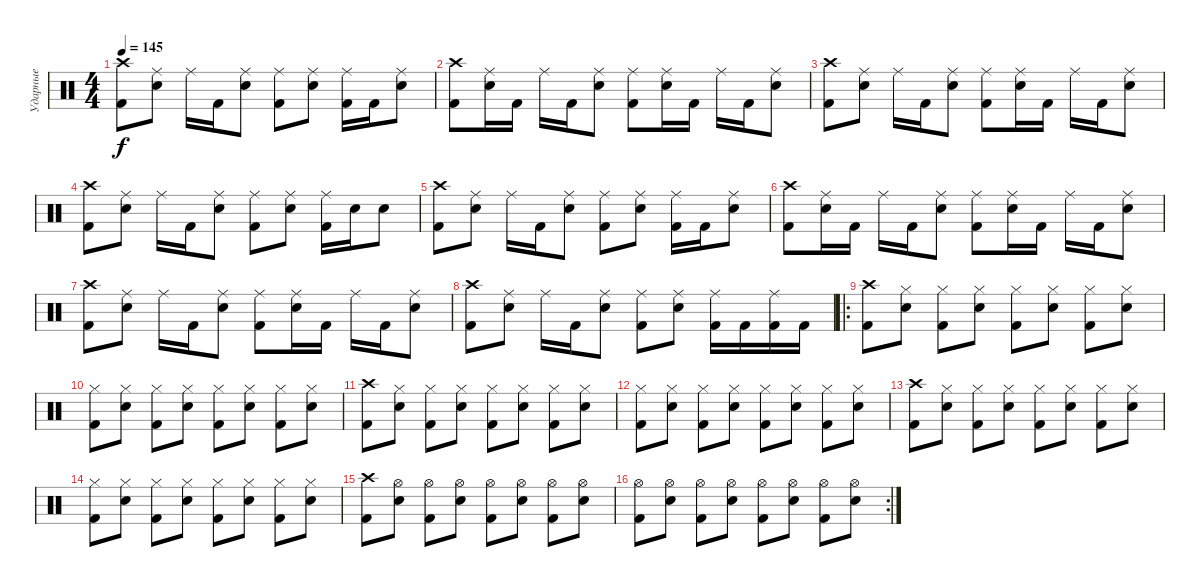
\track ("Ударные" "Ударные") {instrument percussion}
\staff {score}
\articulation defaults
\ts (4 4)
\tempo 145
\clef neutral
\ks c
("Kick (hit) 2" "Crash high (hit)").8{dy f} ("Electric Snare (hit)" "Ride (middle)").8 "Ride (middle)".16 "Kick (hit) 2".16 ("Electric Snare (hit)" "Ride (middle)").8 ("Kick (hit) 2" "Ride (middle)").8 ("Electric Snare (hit)" "Ride (middle)").8 ("Kick (hit) 2" "Ride (middle)").16 "Kick (hit) 2".16 ("Electric Snare (hit)" "Ride (middle)").8 |
("Kick (hit) 2" "Crash high (hit)").8 ("Electric Snare (hit)" "Ride (middle)").16 "Kick (hit) 2".16 "Ride (middle)".16 "Kick (hit) 2".16 ("Electric Snare (hit)" "Ride (middle)").8 ("Kick (hit) 2" "Ride (middle)").8 ("Electric Snare (hit)" "Ride (middle)").16 "Kick (hit) 2".16 "Ride (middle)".16 "Kick (hit) 2".16 ("Electric Snare (hit)" "Ride (middle)").8 |
("Kick (hit) 2" "Crash high (hit)").8 ("Electric Snare (hit)" "Ride (middle)").8 "Ride (middle)".16 "Kick (hit) 2".16 ("Electric Snare (hit)" "Ride (middle)").8 ("Kick (hit) 2" "Ride (middle)").8 ("Electric Snare (hit)" "Ride (middle)").16 "Kick (hit) 2".16 "Ride (middle)".16 "Kick (hit) 2".16 ("Electric Snare (hit)" "Ride (middle)").8 |
("Kick (hit) 2" "Crash high (hit)").8 ("Electric Snare (hit)" "Ride (middle)").8 "Ride (middle)".16 "Kick (hit) 2".16 ("Electric Snare (hit)" "Ride (middle)").8 ("Kick (hit) 2" "Ride (middle)").8 ("Electric Snare (hit)" "Ride (middle)").8 ("Kick (hit) 2" "Ride (middle)").16 "Electric Snare (hit)".16 "Electric Snare (hit)".8 |
("Kick (hit) 2" "Crash high (hit)").8 ("Electric Snare (hit)" "Ride (middle)").8 "Ride (middle)".16 "Kick (hit) 2".16 ("Electric Snare (hit)" "Ride (middle)").8 ("Kick (hit) 2" "Ride (middle)").8 ("Electric Snare (hit)" "Ride (middle)").8 ("Kick (hit) 2" "Ride (middle)").16 "Kick (hit) 2".16 ("Electric Snare (hit)" "Ride (middle)").8 |
("Kick (hit) 2" "Crash high (hit)").8 ("Electric Snare (hit)" "Ride (middle)").16 "Kick (hit) 2".16 "Ride (middle)".16 "Kick (hit) 2".16 ("Electric Snare (hit)" "Ride (middle)").8 ("Kick (hit) 2" "Ride (middle)").8 ("Electric Snare (hit)" "Ride (middle)").16 "Kick (hit) 2".16 "Ride (middle)".16 "Kick (hit) 2".16 ("Electric Snare (hit)" "Ride (middle)").8 |
("Kick (hit) 2" "Crash high (hit)").8 ("Electric Snare (hit)" "Ride (middle)").8 "Ride (middle)".16 "Kick (hit) 2".16 ("Electric Snare (hit)" "Ride (middle)").8 ("Kick (hit) 2" "Ride (middle)").8 ("Electric Snare (hit)" "Ride (middle)").16 "Kick (hit) 2".16 "Ride (middle)".16 "Kick (hit) 2".16 ("Electric Snare (hit)" "Ride (middle)").8 |
("Kick (hit) 2" "Crash high (hit)").8 ("Electric Snare (hit)" "Ride (middle)").8 "Ride (middle)".16 "Kick (hit) 2".16 ("Electric Snare (hit)" "Ride (middle)").8 ("Kick (hit) 2" "Ride (middle)").8 ("Electric Snare (hit)" "Ride (middle)").8 ("Kick (hit) 2" "Ride (middle)").16 "Kick (hit) 2".16 ("Kick (hit) 2" "Ride (middle)").16 "Kick (hit) 2".16 |
\ro
("Kick (hit) 2" "Crash high (hit)").8 ("Electric Snare (hit)" "Hi-Hat (closed)").8 ("Kick (hit) 2" "Hi-Hat (closed)").8 ("Electric Snare (hit)" "Hi-Hat (closed)").8 ("Kick (hit) 2" "Hi-Hat (closed)").8 ("Electric Snare (hit)" "Hi-Hat (closed)").8 ("Kick (hit) 2" "Hi-Hat (closed)").8 ("Electric Snare (hit)" "Hi-Hat (closed)").8 |
("Kick (hit) 2" "Hi-Hat (closed)").8 ("Electric Snare (hit)" "Hi-Hat (closed)").8 ("Kick (hit) 2" "Hi-Hat (closed)").8 ("Electric Snare (hit)" "Hi-Hat (closed)").8 ("Kick (hit) 2" "Hi-Hat (closed)").8 ("Electric Snare (hit)" "Hi-Hat (closed)").8 ("Kick (hit) 2" "Hi-Hat (closed)").8 ("Electric Snare (hit)" "Hi-Hat (closed)").8 |
("Kick (hit) 2" "Crash high (hit)").8 ("Electric Snare (hit)" "Hi-Hat (closed)").8 ("Kick (hit) 2" "Hi-Hat (closed)").8 ("Electric Snare (hit)" "Hi-Hat (closed)").8 ("Kick (hit) 2" "Hi-Hat (closed)").8 ("Electric Snare (hit)" "Hi-Hat (closed)").8 ("Kick (hit) 2" "Hi-Hat (closed)").8 ("Electric Snare (hit)" "Hi-Hat (closed)").8 |
("Kick (hit) 2" "Hi-Hat (closed)").8 ("Electric Snare (hit)" "Hi-Hat (closed)").8 ("Kick (hit) 2" "Hi-Hat (closed)").8 ("Electric Snare (hit)" "Hi-Hat (closed)").8 ("Kick (hit) 2" "Hi-Hat (closed)").8 ("Electric Snare (hit)" "Hi-Hat (closed)").8 ("Kick (hit) 2" "Hi-Hat (closed)").8 ("Electric Snare (hit)" "Hi-Hat (closed)").8 |
("Kick (hit) 2" "Crash high (hit)").8 ("Electric Snare (hit)" "Hi-Hat (closed)").8 ("Kick (hit) 2" "Hi-Hat (closed)").8 ("Electric Snare (hit)" "Hi-Hat (closed)").8 ("Kick (hit) 2" "Hi-Hat (closed)").8 ("Electric Snare (hit)" "Hi-Hat (closed)").8 ("Kick (hit) 2" "Hi-Hat (closed)").8 ("Electric Snare (hit)" "Hi-Hat (closed)").8 |
("Kick (hit) 2" "Hi-Hat (closed)").8 ("Electric Snare (hit)" "Hi-Hat (closed)").8 ("Kick (hit) 2" "Hi-Hat (closed)").8 ("Electric Snare (hit)" "Hi-Hat (closed)").8 ("Kick (hit) 2" "Hi-Hat (closed)").8 ("Electric Snare (hit)" "Hi-Hat (closed)").8 ("Kick (hit) 2" "Hi-Hat (closed)").8 ("Electric Snare (hit)" "Hi-Hat (closed)").8 |
("Kick (hit) 2" "Crash high (hit)").8 ("Electric Snare (hit)" "Hi-Hat (open)").8 ("Kick (hit) 2" "Hi-Hat (open)").8 ("Electric Snare (hit)" "Hi-Hat (open)").8 ("Kick (hit) 2" "Hi-Hat (open)").8 ("Electric Snare (hit)" "Hi-Hat (open)").8 ("Kick (hit) 2" "Hi-Hat (open)").8 ("Electric Snare (hit)" "Hi-Hat (open)").8 |
\rc 2
("Kick (hit) 2" "Hi-Hat (open)").8 ("Electric Snare (hit)" "Hi-Hat (open)").8 ("Kick (hit) 2" "Hi-Hat (open)").8 ("Electric Snare (hit)" "Hi-Hat (open)").8 ("Kick (hit) 2" "Hi-Hat (open)").8 ("Electric Snare (hit)" "Hi-Hat (open)").8 ("Kick (hit) 2" "Hi-Hat (open)").8 ("Electric Snare (hit)" "Hi-Hat (open)").8
